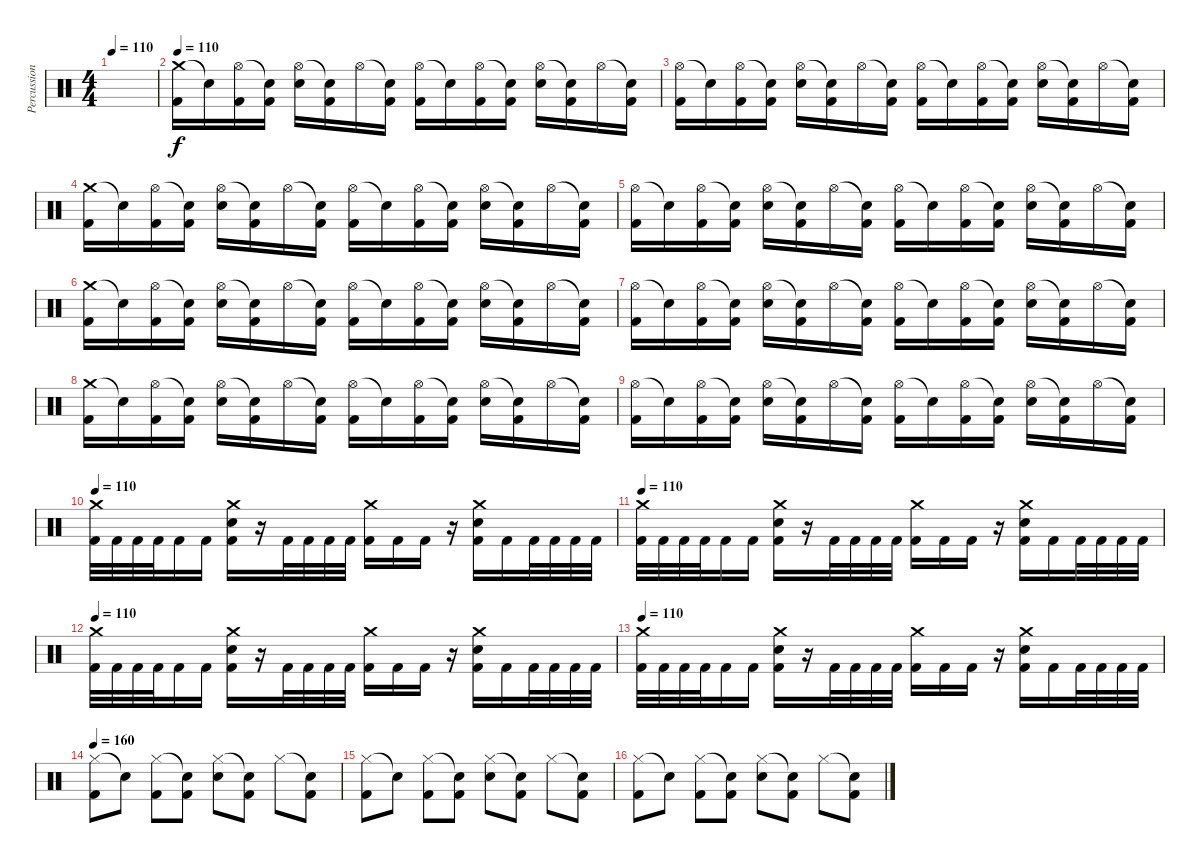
\track ("Percussion" "Percussion") {instrument percussion}
\staff {score}
\articulation defaults
\ts (4 4)
\tempo 110
\clef neutral
\ks c
|
\tempo 110
("Crash medium (hit)" "Kick (hit) 2").16 "Snare (hit)"{t}.16 ("Hi-Hat (open)" "Kick (hit) 2").16 ("Snare (hit)"{t} "Kick (hit) 2").16 ("Hi-Hat (open)" "Electric Snare (hit)").16 ("Snare (hit)"{t} "Kick (hit) 2").16 "Hi-Hat (open)".16 ("Snare (hit)"{t} "Kick (hit) 2").16 ("Hi-Hat (open)" "Kick (hit) 2").16 "Snare (hit)"{t}.16 ("Hi-Hat (open)" "Kick (hit) 2").16 ("Snare (hit)"{t} "Kick (hit) 2").16 ("Hi-Hat (open)" "Electric Snare (hit)").16 ("Snare (hit)"{t} "Kick (hit) 2").16 "Hi-Hat (open)".16 ("Snare (hit)"{t} "Kick (hit) 2").16 |
("Hi-Hat (open)" "Kick (hit) 2").16 "Snare (hit)"{t}.16 ("Hi-Hat (open)" "Kick (hit) 2").16 ("Snare (hit)"{t} "Kick (hit) 2").16 ("Hi-Hat (open)" "Electric Snare (hit)").16 ("Snare (hit)"{t} "Kick (hit) 2").16 "Hi-Hat (open)".16 ("Snare (hit)"{t} "Kick (hit) 2").16 ("Hi-Hat (open)" "Kick (hit) 2").16 "Snare (hit)"{t}.16 ("Hi-Hat (open)" "Kick (hit) 2").16 ("Snare (hit)"{t} "Kick (hit) 2").16 ("Hi-Hat (open)" "Electric Snare (hit)").16 ("Snare (hit)"{t} "Kick (hit) 2").16 "Hi-Hat (open)".16 ("Snare (hit)"{t} "Kick (hit) 2").16 |
("Crash medium (hit)" "Kick (hit) 2").16 "Snare (hit)"{t}.16 ("Hi-Hat (open)" "Kick (hit) 2").16 ("Snare (hit)"{t} "Kick (hit) 2").16 ("Hi-Hat (open)" "Electric Snare (hit)").16 ("Snare (hit)"{t} "Kick (hit) 2").16 "Hi-Hat (open)".16 ("Snare (hit)"{t} "Kick (hit) 2").16 ("Hi-Hat (open)" "Kick (hit) 2").16 "Snare (hit)"{t}.16 ("Hi-Hat (open)" "Kick (hit) 2").16 ("Snare (hit)"{t} "Kick (hit) 2").16 ("Hi-Hat (open)" "Electric Snare (hit)").16 ("Snare (hit)"{t} "Kick (hit) 2").16 "Hi-Hat (open)".16 ("Snare (hit)"{t} "Kick (hit) 2").16 |
("Hi-Hat (open)" "Kick (hit) 2").16 "Snare (hit)"{t}.16 ("Hi-Hat (open)" "Kick (hit) 2").16 ("Snare (hit)"{t} "Kick (hit) 2").16 ("Hi-Hat (open)" "Electric Snare (hit)").16 ("Snare (hit)"{t} "Kick (hit) 2").16 "Hi-Hat (open)".16 ("Snare (hit)"{t} "Kick (hit) 2").16 ("Hi-Hat (open)" "Kick (hit) 2").16 "Snare (hit)"{t}.16 ("Hi-Hat (open)" "Kick (hit) 2").16 ("Snare (hit)"{t} "Kick (hit) 2").16 ("Hi-Hat (open)" "Electric Snare (hit)").16 ("Snare (hit)"{t} "Kick (hit) 2").16 "Hi-Hat (open)".16 ("Snare (hit)"{t} "Kick (hit) 2").16 |
("Crash medium (hit)" "Kick (hit) 2").16 "Snare (hit)"{t}.16 ("Hi-Hat (open)" "Kick (hit) 2").16 ("Snare (hit)"{t} "Kick (hit) 2").16 ("Hi-Hat (open)" "Electric Snare (hit)").16 ("Snare (hit)"{t} "Kick (hit) 2").16 "Hi-Hat (open)".16 ("Snare (hit)"{t} "Kick (hit) 2").16 ("Hi-Hat (open)" "Kick (hit) 2").16 "Snare (hit)"{t}.16 ("Hi-Hat (open)" "Kick (hit) 2").16 ("Snare (hit)"{t} "Kick (hit) 2").16 ("Hi-Hat (open)" "Electric Snare (hit)").16 ("Snare (hit)"{t} "Kick (hit) 2").16 "Hi-Hat (open)".16 ("Snare (hit)"{t} "Kick (hit) 2").16 |
("Hi-Hat (open)" "Kick (hit) 2").16 "Snare (hit)"{t}.16 ("Hi-Hat (open)" "Kick (hit) 2").16 ("Snare (hit)"{t} "Kick (hit) 2").16 ("Hi-Hat (open)" "Electric Snare (hit)").16 ("Snare (hit)"{t} "Kick (hit) 2").16 "Hi-Hat (open)".16 ("Snare (hit)"{t} "Kick (hit) 2").16 ("Hi-Hat (open)" "Kick (hit) 2").16 "Snare (hit)"{t}.16 ("Hi-Hat (open)" "Kick (hit) 2").16 ("Snare (hit)"{t} "Kick (hit) 2").16 ("Hi-Hat (open)" "Electric Snare (hit)").16 ("Snare (hit)"{t} "Kick (hit) 2").16 "Hi-Hat (open)".16 ("Snare (hit)"{t} "Kick (hit) 2").16 |
("Crash medium (hit)" "Kick (hit) 2").16 "Snare (hit)"{t}.16 ("Hi-Hat (open)" "Kick (hit) 2").16 ("Snare (hit)"{t} "Kick (hit) 2").16 ("Hi-Hat (open)" "Electric Snare (hit)").16 ("Snare (hit)"{t} "Kick (hit) 2").16 "Hi-Hat (open)".16 ("Snare (hit)"{t} "Kick (hit) 2").16 ("Hi-Hat (open)" "Kick (hit) 2").16 "Snare (hit)"{t}.16 ("Hi-Hat (open)" "Kick (hit) 2").16 ("Snare (hit)"{t} "Kick (hit) 2").16 ("Hi-Hat (open)" "Electric Snare (hit)").16 ("Snare (hit)"{t} "Kick (hit) 2").16 "Hi-Hat (open)".16 ("Snare (hit)"{t} "Kick (hit) 2").16 |
("Hi-Hat (open)" "Kick (hit) 2").16 "Snare (hit)"{t}.16 ("Hi-Hat (open)" "Kick (hit) 2").16 ("Snare (hit)"{t} "Kick (hit) 2").16 ("Hi-Hat (open)" "Electric Snare (hit)").16 ("Snare (hit)"{t} "Kick (hit) 2").16 "Hi-Hat (open)".16 ("Snare (hit)"{t} "Kick (hit) 2").16 ("Hi-Hat (open)" "Kick (hit) 2").16 "Snare (hit)"{t}.16 ("Hi-Hat (open)" "Kick (hit) 2").16 ("Snare (hit)"{t} "Kick (hit) 2").16 ("Hi-Hat (open)" "Electric Snare (hit)").16 ("Snare (hit)"{t} "Kick (hit) 2").16 "Hi-Hat (open)".16 ("Snare (hit)"{t} "Kick (hit) 2").16 |
\tempo 110
("Crash medium (hit)" "Kick (hit) 2").32 "Kick (hit) 2".32 "Kick (hit) 2".32 "Kick (hit) 2".32 "Kick (hit) 2".16 "Kick (hit) 2".16 ("Crash medium (hit)" "Electric Snare (hit)" "Kick (hit) 2").16 r.16 "Kick (hit) 2".32 "Kick (hit) 2".32 "Kick (hit) 2".32 "Kick (hit) 2".32 ("Crash medium (hit)" "Kick (hit) 2").16 "Kick (hit) 2".16 "Kick (hit) 2".16 r.16 ("Crash medium (hit)" "Electric Snare (hit)" "Kick (hit) 2").16 "Kick (hit) 2".16 "Kick (hit) 2".32 "Kick (hit) 2".32 "Kick (hit) 2".32 "Kick (hit) 2".32 |
\tempo 110
("Crash medium (hit)" "Kick (hit) 2").32 "Kick (hit) 2".32 "Kick (hit) 2".32 "Kick (hit) 2".32 "Kick (hit) 2".16 "Kick (hit) 2".16 ("Crash medium (hit)" "Electric Snare (hit)" "Kick (hit) 2").16 r.16 "Kick (hit) 2".32 "Kick (hit) 2".32 "Kick (hit) 2".32 "Kick (hit) 2".32 ("Crash medium (hit)" "Kick (hit) 2").16 "Kick (hit) 2".16 "Kick (hit) 2".16 r.16 ("Crash medium (hit)" "Electric Snare (hit)" "Kick (hit) 2").16 "Kick (hit) 2".16 "Kick (hit) 2".32 "Kick (hit) 2".32 "Kick (hit) 2".32 "Kick (hit) 2".32 |
\tempo 110
("Crash medium (hit)" "Kick (hit) 2").32 "Kick (hit) 2".32 "Kick (hit) 2".32 "Kick (hit) 2".32 "Kick (hit) 2".16 "Kick (hit) 2".16 ("Crash medium (hit)" "Electric Snare (hit)" "Kick (hit) 2").16 r.16 "Kick (hit) 2".32 "Kick (hit) 2".32 "Kick (hit) 2".32 "Kick (hit) 2".32 ("Crash medium (hit)" "Kick (hit) 2").16 "Kick (hit) 2".16 "Kick (hit) 2".16 r.16 ("Crash medium (hit)" "Electric Snare (hit)" "Kick (hit) 2").16 "Kick (hit) 2".16 "Kick (hit) 2".32 "Kick (hit) 2".32 "Kick (hit) 2".32 "Kick (hit) 2".32 |
\tempo 110
("Crash medium (hit)" "Kick (hit) 2").32 "Kick (hit) 2".32 "Kick (hit) 2".32 "Kick (hit) 2".32 "Kick (hit) 2".16 "Kick (hit) 2".16 ("Crash medium (hit)" "Electric Snare (hit)" "Kick (hit) 2").16 r.16 "Kick (hit) 2".32 "Kick (hit) 2".32 "Kick (hit) 2".32 "Kick (hit) 2".32 ("Crash medium (hit)" "Kick (hit) 2").16 "Kick (hit) 2".16 "Kick (hit) 2".16 r.16 ("Crash medium (hit)" "Electric Snare (hit)" "Kick (hit) 2").16 "Kick (hit) 2".16 "Kick (hit) 2".32 "Kick (hit) 2".32 "Kick (hit) 2".32 "Kick (hit) 2".32 |
\tempo 160
("Hi-Hat (closed)" "Kick (hit) 2").8 "Snare (hit)"{t}.8 ("Hi-Hat (closed)" "Kick (hit) 2").8 ("Snare (hit)"{t} "Kick (hit) 2").8 ("Hi-Hat (closed)" "Electric Snare (hit)").8 ("Snare (hit)"{t} "Kick (hit) 2").8 "Hi-Hat (closed)".8 ("Snare (hit)"{t} "Kick (hit) 2").8 |
("Hi-Hat (closed)" "Kick (hit) 2").8 "Snare (hit)"{t}.8 ("Hi-Hat (closed)" "Kick (hit) 2").8 ("Snare (hit)"{t} "Kick (hit) 2").8 ("Hi-Hat (closed)" "Electric Snare (hit)").8 ("Snare (hit)"{t} "Kick (hit) 2").8 "Hi-Hat (closed)".8 ("Snare (hit)"{t} "Kick (hit) 2").8 |
("Hi-Hat (closed)" "Kick (hit) 2").8 "Snare (hit)"{t}.8 ("Hi-Hat (closed)" "Kick (hit) 2").8 ("Snare (hit)"{t} "Kick (hit) 2").8 ("Hi-Hat (closed)" "Electric Snare (hit)").8 ("Snare (hit)"{t} "Kick (hit) 2").8 "Hi-Hat (closed)".8 ("Snare (hit)"{t} "Kick (hit) 2").8
